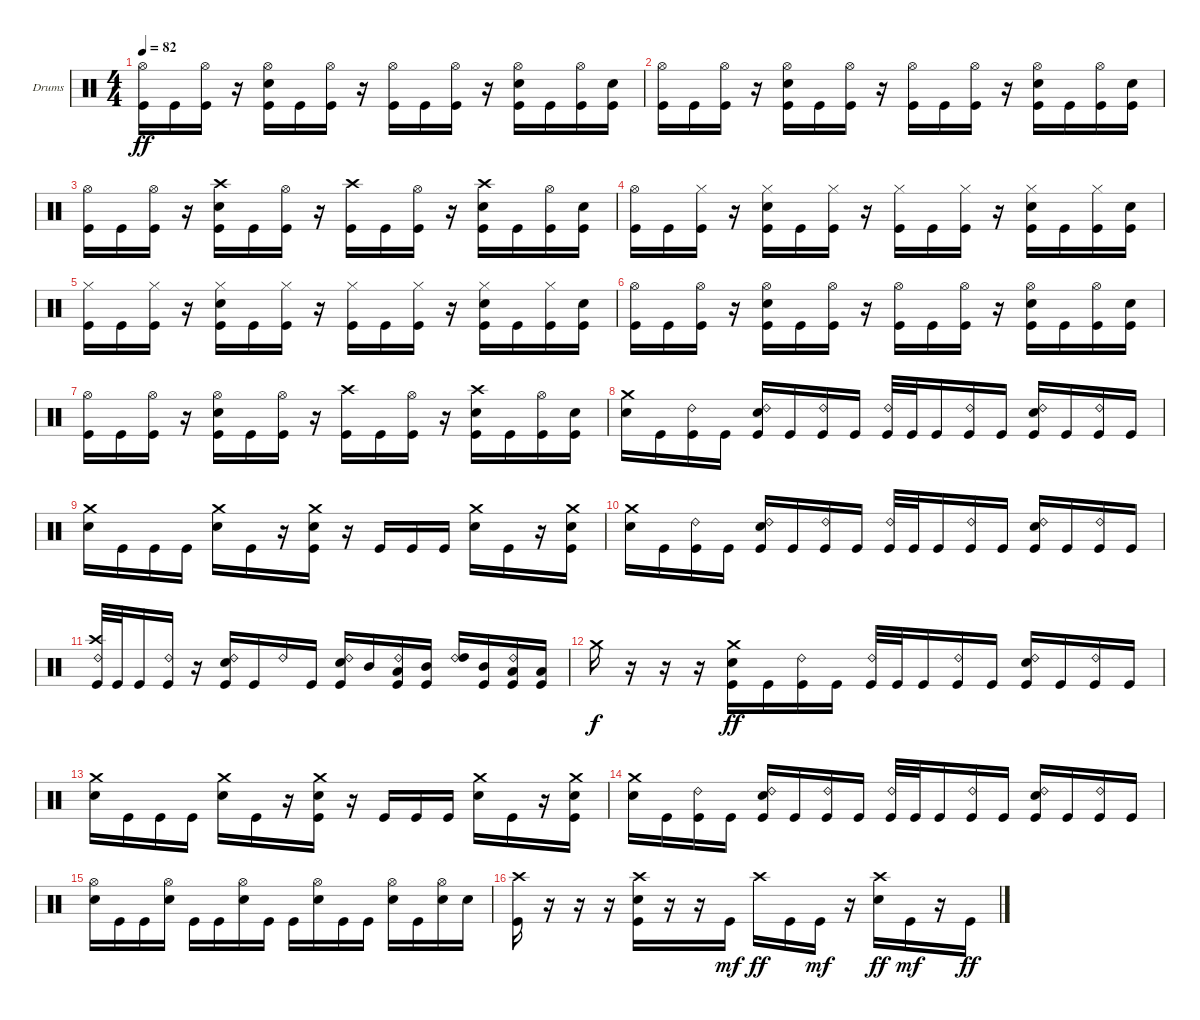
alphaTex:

\bracketExtendMode groupsimilarinstruments
\firstSystemTrackNameOrientation horizontal
\otherSystemsTrackNameOrientation horizontal
\track ("Kaleb - Drums" "Drums") {instrument percussion}
\staff {score}
\articulation defaults
\ts (4 4)
\tempo 82
\clef neutral
\ks c
("Kick (hit)" "Hi-Hat (open)").16{dy ff} "Kick (hit)".16 ("Kick (hit)" "Hi-Hat (open)").16 r.16 ("Kick (hit)" "Snare (hit) 2" "Hi-Hat (open)").16 "Kick (hit)".16 ("Kick (hit)" "Hi-Hat (open)").16 r.16 ("Kick (hit)" "Hi-Hat (open)").16 "Kick (hit)".16 ("Kick (hit)" "Hi-Hat (open)").16 r.16 ("Kick (hit)" "Snare (hit) 2" "Hi-Hat (open)").16 "Kick (hit)".16 ("Kick (hit)" "Hi-Hat (open)").16 ("Kick (hit)" "Snare (hit) 2").16 |
("Kick (hit)" "Hi-Hat (open)").16 "Kick (hit)".16 ("Kick (hit)" "Hi-Hat (open)").16 r.16 ("Kick (hit)" "Snare (hit) 2" "Hi-Hat (open)").16 "Kick (hit)".16 ("Kick (hit)" "Hi-Hat (open)").16 r.16 ("Kick (hit)" "Hi-Hat (open)").16 "Kick (hit)".16 ("Kick (hit)" "Hi-Hat (open)").16 r.16 ("Kick (hit)" "Snare (hit) 2" "Hi-Hat (open)").16 "Kick (hit)".16 ("Kick (hit)" "Hi-Hat (open)").16 ("Kick (hit)" "Snare (hit) 2").16 |
("Kick (hit)" "Hi-Hat (open)").16 "Kick (hit)".16 ("Kick (hit)" "Hi-Hat (open)").16 r.16 ("Kick (hit)" "Snare (hit) 2" "Crash high (hit)").16 "Kick (hit)".16 ("Kick (hit)" "Hi-Hat (open)").16 r.16 ("Kick (hit)" "Crash high (hit)").16 "Kick (hit)".16 ("Kick (hit)" "Hi-Hat (open)").16 r.16 ("Kick (hit)" "Snare (hit) 2" "Crash high (hit)").16 "Kick (hit)".16 ("Kick (hit)" "Hi-Hat (open)").16 ("Kick (hit)" "Snare (hit) 2").16 |
("Kick (hit)" "Hi-Hat (open)").16 "Kick (hit)".16 ("Kick (hit)" "Hi-Hat (closed)").16 r.16 ("Kick (hit)" "Snare (hit) 2" "Hi-Hat (closed)").16 "Kick (hit)".16 ("Kick (hit)" "Hi-Hat (closed)").16 r.16 ("Kick (hit)" "Hi-Hat (closed)").16 "Kick (hit)".16 ("Kick (hit)" "Hi-Hat (closed)").16 r.16 ("Kick (hit)" "Snare (hit) 2" "Hi-Hat (closed)").16 "Kick (hit)".16 ("Kick (hit)" "Hi-Hat (closed)").16 ("Kick (hit)" "Snare (hit) 2").16 |
("Kick (hit)" "Hi-Hat (closed)").16 "Kick (hit)".16 ("Kick (hit)" "Hi-Hat (closed)").16 r.16 ("Kick (hit)" "Snare (hit) 2" "Hi-Hat (closed)").16 "Kick (hit)".16 ("Kick (hit)" "Hi-Hat (closed)").16 r.16 ("Kick (hit)" "Hi-Hat (closed)").16 "Kick (hit)".16 ("Kick (hit)" "Hi-Hat (closed)").16 r.16 ("Kick (hit)" "Snare (hit) 2" "Hi-Hat (closed)").16 "Kick (hit)".16 ("Kick (hit)" "Hi-Hat (closed)").16 ("Kick (hit)" "Snare (hit) 2").16 |
("Kick (hit)" "Hi-Hat (open)").16 "Kick (hit)".16 ("Kick (hit)" "Hi-Hat (open)").16 r.16 ("Kick (hit)" "Snare (hit) 2" "Hi-Hat (open)").16 "Kick (hit)".16 ("Kick (hit)" "Hi-Hat (open)").16 r.16 ("Kick (hit)" "Hi-Hat (open)").16 "Kick (hit)".16 ("Kick (hit)" "Hi-Hat (open)").16 r.16 ("Kick (hit)" "Snare (hit) 2" "Hi-Hat (open)").16 "Kick (hit)".16 ("Kick (hit)" "Hi-Hat (open)").16 ("Kick (hit)" "Snare (hit) 2").16 |
("Kick (hit)" "Hi-Hat (open)").16 "Kick (hit)".16 ("Kick (hit)" "Hi-Hat (open)").16 r.16 ("Kick (hit)" "Snare (hit) 2" "Hi-Hat (open)").16 "Kick (hit)".16 ("Kick (hit)" "Hi-Hat (open)").16 r.16 ("Kick (hit)" "Crash high (hit)").16 "Kick (hit)".16 ("Kick (hit)" "Hi-Hat (open)").16 r.16 ("Kick (hit)" "Snare (hit) 2" "Crash high (hit)").16 "Kick (hit)".16 ("Kick (hit)" "Hi-Hat (open)").16 ("Kick (hit)" "Snare (hit) 2").16 |
("Snare (hit) 2" "Crash medium (hit)").16 "Kick (hit)".16 ("Kick (hit)" "Ride (bell) 2").16 "Kick (hit)".16 ("Kick (hit)" "Snare (hit) 2" "Ride (bell) 2").16 "Kick (hit)".16 ("Kick (hit)" "Ride (bell) 2").16 "Kick (hit)".16 ("Kick (hit)" "Ride (bell) 2").32 "Kick (hit)".32 "Kick (hit)".16 ("Kick (hit)" "Ride (bell) 2").16 "Kick (hit)".16 ("Kick (hit)" "Snare (hit) 2" "Ride (bell) 2").16 "Kick (hit)".16 ("Kick (hit)" "Ride (bell) 2").16 "Kick (hit)".16 |
("Snare (hit) 2" "Crash medium (hit)").16 "Kick (hit)".16 "Kick (hit)".16 "Kick (hit)".16 ("Crash medium (hit)" "Snare (hit) 2").16 "Kick (hit)".16 r.16 ("Kick (hit)" "Snare (hit) 2" "Crash medium (hit)").16 r.16 "Kick (hit)".16 "Kick (hit)".16 "Kick (hit)".16 ("Crash medium (hit)" "Snare (hit) 2").16 "Kick (hit)".16 r.16 ("Kick (hit)" "Snare (hit) 2" "Crash medium (hit)").16 |
("Snare (hit) 2" "Crash medium (hit)").16 "Kick (hit)".16 ("Kick (hit)" "Ride (bell) 2").16 "Kick (hit)".16 ("Kick (hit)" "Snare (hit) 2" "Ride (bell) 2").16 "Kick (hit)".16 ("Kick (hit)" "Ride (bell) 2").16 "Kick (hit)".16 ("Kick (hit)" "Ride (bell) 2").32 "Kick (hit)".32 "Kick (hit)".16 ("Kick (hit)" "Ride (bell) 2").16 "Kick (hit)".16 ("Kick (hit)" "Snare (hit) 2" "Ride (bell) 2").16 "Kick (hit)".16 ("Kick (hit)" "Ride (bell) 2").16 "Kick (hit)".16 |
("Kick (hit)" "Ride (bell) 2" "Crash high (hit)").32 "Kick (hit)".32 "Kick (hit)".16 ("Kick (hit)" "Ride (bell) 2").16 r.16 ("Kick (hit)" "Ride (bell) 2" "Snare (hit) 2").16 "Kick (hit)".16 "Ride (bell) 2".16 "Kick (hit)".16 ("Kick (hit)" "Ride (bell) 2" "Snare (hit) 2").16 "Mid Tom (hit)".16 ("Kick (hit)" "Ride (bell) 2" "Low Tom (hit)").16 ("Kick (hit)" "Mid Tom (hit)").16 ("Ride (bell) 2" "High Tom (hit)").16 ("Kick (hit)" "Mid Tom (hit)").16 ("Kick (hit)" "Ride (bell) 2" "Low Tom (hit)").16 ("Kick (hit)" "Low Tom (hit)").16 |
"Crash medium (hit)".16{dy f} r.16 r.16 r.16 ("Kick (hit)" "Snare (hit) 2" "Crash medium (hit)").16{dy ff} "Kick (hit)".16 ("Kick (hit)" "Ride (bell) 2").16 "Kick (hit)".16 ("Kick (hit)" "Ride (bell) 2").32 "Kick (hit)".32 "Kick (hit)".16 ("Kick (hit)" "Ride (bell) 2").16 "Kick (hit)".16 ("Kick (hit)" "Snare (hit) 2" "Ride (bell) 2").16 "Kick (hit)".16 ("Kick (hit)" "Ride (bell) 2").16 "Kick (hit)".16 |
("Snare (hit) 2" "Crash medium (hit)").16 "Kick (hit)".16 "Kick (hit)".16 "Kick (hit)".16 ("Crash medium (hit)" "Snare (hit) 2").16 "Kick (hit)".16 r.16 ("Kick (hit)" "Snare (hit) 2" "Crash medium (hit)").16 r.16 "Kick (hit)".16 "Kick (hit)".16 "Kick (hit)".16 ("Crash medium (hit)" "Snare (hit) 2").16 "Kick (hit)".16 r.16 ("Kick (hit)" "Snare (hit) 2" "Crash medium (hit)").16 |
("Snare (hit) 2" "Crash medium (hit)").16 "Kick (hit)".16 ("Kick (hit)" "Ride (bell) 2").16 "Kick (hit)".16 ("Kick (hit)" "Snare (hit) 2" "Ride (bell) 2").16 "Kick (hit)".16 ("Kick (hit)" "Ride (bell) 2").16 "Kick (hit)".16 ("Kick (hit)" "Ride (bell) 2").32 "Kick (hit)".32 "Kick (hit)".16 ("Kick (hit)" "Ride (bell) 2").16 "Kick (hit)".16 ("Kick (hit)" "Snare (hit) 2" "Ride (bell) 2").16 "Kick (hit)".16 ("Kick (hit)" "Ride (bell) 2").16 "Kick (hit)".16 |
("Snare (hit) 2" "Hi-Hat (open)").16 "Kick (hit)".16 "Kick (hit)".16 ("Snare (hit) 2" "Hi-Hat (open)").16 "Kick (hit)".16 "Kick (hit)".16 ("Snare (hit) 2" "Hi-Hat (open)").16 "Kick (hit)".16 "Kick (hit)".16 ("Snare (hit) 2" "Hi-Hat (open)").16 "Kick (hit)".16 "Kick (hit)".16 ("Snare (hit) 2" "Hi-Hat (open)").16 "Kick (hit)".16 ("Snare (hit) 2" "Hi-Hat (open)").16 "Snare (hit) 2".16 |
("Kick (hit)" "Crash high (hit)").16 r.16 r.16 r.16 ("Kick (hit)" "Snare (hit) 2" "Crash high (hit)").16 r.16 r.16 "Kick (hit)".16{dy mf} "Crash high (hit)".16{dy ff} "Kick (hit)".16 "Kick (hit)".16{dy mf} r.16 ("Snare (hit) 2" "Crash high (hit)").16{dy ff} "Kick (hit)".16{dy mf} r.16 "Kick (hit)".16{dy ff}
